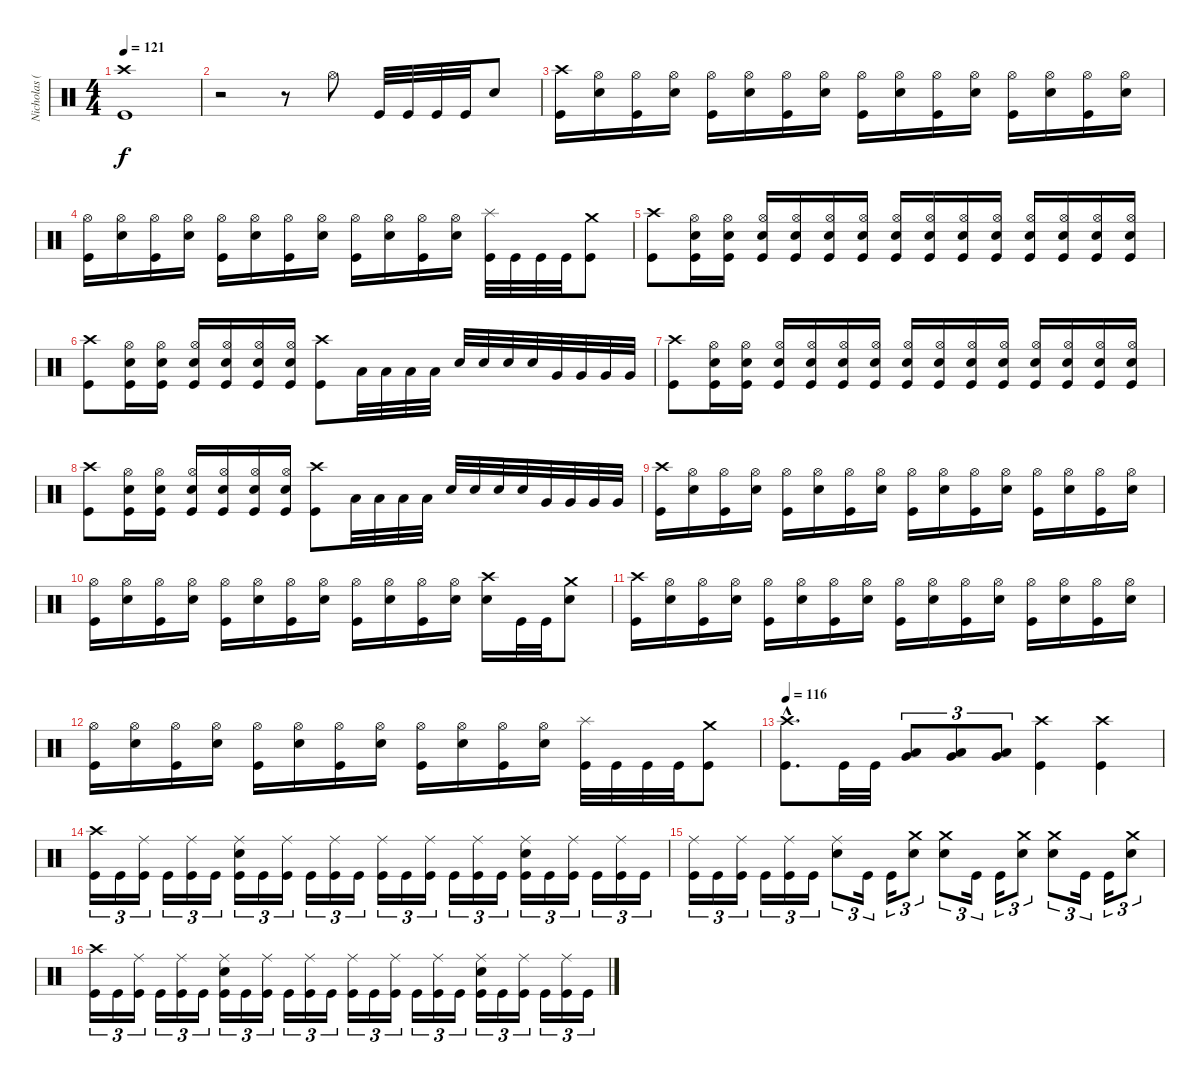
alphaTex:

\track ("Nicholas (Drums)" "Nicholas (") {instrument percussion}
\staff {score}
\articulation defaults
\ts (4 4)
\tempo 121
\clef neutral
\ks c
("Crash high (hit)" "Kick (hit)").1{dy f} |
r.2 r.8 "Hi-Hat (open)".8 "Kick (hit)".32 "Kick (hit)".32 "Kick (hit)".32 "Kick (hit)".32 "Electric Snare (hit)".8 |
("Crash high (hit)" "Kick (hit)").16 ("Hi-Hat (open)" "Electric Snare (hit)").16 ("Hi-Hat (open)" "Kick (hit)").16 ("Hi-Hat (open)" "Electric Snare (hit)").16 ("Hi-Hat (open)" "Kick (hit)").16 ("Hi-Hat (open)" "Electric Snare (hit)").16 ("Hi-Hat (open)" "Kick (hit)").16 ("Hi-Hat (open)" "Electric Snare (hit)").16 ("Hi-Hat (open)" "Kick (hit)").16 ("Hi-Hat (open)" "Electric Snare (hit)").16 ("Hi-Hat (open)" "Kick (hit)").16 ("Hi-Hat (open)" "Electric Snare (hit)").16 ("Hi-Hat (open)" "Kick (hit)").16 ("Hi-Hat (open)" "Electric Snare (hit)").16 ("Hi-Hat (open)" "Kick (hit)").16 ("Hi-Hat (open)" "Electric Snare (hit)").16 |
("Hi-Hat (open)" "Kick (hit)").16 ("Hi-Hat (open)" "Electric Snare (hit)").16 ("Hi-Hat (open)" "Kick (hit)").16 ("Hi-Hat (open)" "Electric Snare (hit)").16 ("Hi-Hat (open)" "Kick (hit)").16 ("Hi-Hat (open)" "Electric Snare (hit)").16 ("Hi-Hat (open)" "Kick (hit)").16 ("Hi-Hat (open)" "Electric Snare (hit)").16 ("Hi-Hat (open)" "Kick (hit)").16 ("Hi-Hat (open)" "Electric Snare (hit)").16 ("Hi-Hat (open)" "Kick (hit)").16 ("Hi-Hat (open)" "Electric Snare (hit)").16 ("Splash (hit)" "Kick (hit)").32 "Kick (hit)".32 "Kick (hit)".32 "Kick (hit)".32 ("Crash medium (hit)" "Kick (hit)").8 |
("Crash high (hit)" "Kick (hit)").8 ("Hi-Hat (open)" "Electric Snare (hit)" "Kick (hit)").16 ("Hi-Hat (open)" "Electric Snare (hit)" "Kick (hit)").16 ("Hi-Hat (open)" "Electric Snare (hit)" "Kick (hit)").16 ("Hi-Hat (open)" "Electric Snare (hit)" "Kick (hit)").16 ("Hi-Hat (open)" "Electric Snare (hit)" "Kick (hit)").16 ("Hi-Hat (open)" "Electric Snare (hit)" "Kick (hit)").16 ("Hi-Hat (open)" "Electric Snare (hit)" "Kick (hit)").16 ("Hi-Hat (open)" "Electric Snare (hit)" "Kick (hit)").16 ("Hi-Hat (open)" "Electric Snare (hit)" "Kick (hit)").16 ("Hi-Hat (open)" "Electric Snare (hit)" "Kick (hit)").16 ("Hi-Hat (open)" "Electric Snare (hit)" "Kick (hit)").16 ("Hi-Hat (open)" "Electric Snare (hit)" "Kick (hit)").16 ("Hi-Hat (open)" "Electric Snare (hit)" "Kick (hit)").16 ("Hi-Hat (open)" "Electric Snare (hit)" "Kick (hit)").16 |
("Crash high (hit)" "Kick (hit)").8 ("Hi-Hat (open)" "Electric Snare (hit)" "Kick (hit)").16 ("Hi-Hat (open)" "Electric Snare (hit)" "Kick (hit)").16 ("Hi-Hat (open)" "Electric Snare (hit)" "Kick (hit)").16 ("Hi-Hat (open)" "Electric Snare (hit)" "Kick (hit)").16 ("Hi-Hat (open)" "Electric Snare (hit)" "Kick (hit)").16 ("Hi-Hat (open)" "Electric Snare (hit)" "Kick (hit)").16 ("Crash high (hit)" "Kick (hit)").8 "Low Tom (hit)".32 "Low Tom (hit)".32 "Low Tom (hit)".32 "Low Tom (hit)".32 "Electric Snare (hit)".32 "Electric Snare (hit)".32 "Electric Snare (hit)".32 "Electric Snare (hit)".32 "Very Low Tom (hit)".32 "Very Low Tom (hit)".32 "Very Low Tom (hit)".32 "Very Low Tom (hit)".32 |
("Crash high (hit)" "Kick (hit)").8 ("Hi-Hat (open)" "Electric Snare (hit)" "Kick (hit)").16 ("Hi-Hat (open)" "Electric Snare (hit)" "Kick (hit)").16 ("Hi-Hat (open)" "Electric Snare (hit)" "Kick (hit)").16 ("Hi-Hat (open)" "Electric Snare (hit)" "Kick (hit)").16 ("Hi-Hat (open)" "Electric Snare (hit)" "Kick (hit)").16 ("Hi-Hat (open)" "Electric Snare (hit)" "Kick (hit)").16 ("Hi-Hat (open)" "Electric Snare (hit)" "Kick (hit)").16 ("Hi-Hat (open)" "Electric Snare (hit)" "Kick (hit)").16 ("Hi-Hat (open)" "Electric Snare (hit)" "Kick (hit)").16 ("Hi-Hat (open)" "Electric Snare (hit)" "Kick (hit)").16 ("Hi-Hat (open)" "Electric Snare (hit)" "Kick (hit)").16 ("Hi-Hat (open)" "Electric Snare (hit)" "Kick (hit)").16 ("Hi-Hat (open)" "Electric Snare (hit)" "Kick (hit)").16 ("Hi-Hat (open)" "Electric Snare (hit)" "Kick (hit)").16 |
("Crash high (hit)" "Kick (hit)").8 ("Hi-Hat (open)" "Electric Snare (hit)" "Kick (hit)").16 ("Hi-Hat (open)" "Electric Snare (hit)" "Kick (hit)").16 ("Hi-Hat (open)" "Electric Snare (hit)" "Kick (hit)").16 ("Hi-Hat (open)" "Electric Snare (hit)" "Kick (hit)").16 ("Hi-Hat (open)" "Electric Snare (hit)" "Kick (hit)").16 ("Hi-Hat (open)" "Electric Snare (hit)" "Kick (hit)").16 ("Crash high (hit)" "Kick (hit)").8 "Low Tom (hit)".32 "Low Tom (hit)".32 "Low Tom (hit)".32 "Low Tom (hit)".32 "Electric Snare (hit)".32 "Electric Snare (hit)".32 "Electric Snare (hit)".32 "Electric Snare (hit)".32 "Very Low Tom (hit)".32 "Very Low Tom (hit)".32 "Very Low Tom (hit)".32 "Very Low Tom (hit)".32 |
("Crash high (hit)" "Kick (hit)").16 ("Hi-Hat (open)" "Electric Snare (hit)").16 ("Hi-Hat (open)" "Kick (hit)").16 ("Hi-Hat (open)" "Electric Snare (hit)").16 ("Hi-Hat (open)" "Kick (hit)").16 ("Hi-Hat (open)" "Electric Snare (hit)").16 ("Hi-Hat (open)" "Kick (hit)").16 ("Hi-Hat (open)" "Electric Snare (hit)").16 ("Hi-Hat (open)" "Kick (hit)").16 ("Hi-Hat (open)" "Electric Snare (hit)").16 ("Hi-Hat (open)" "Kick (hit)").16 ("Hi-Hat (open)" "Electric Snare (hit)").16 ("Hi-Hat (open)" "Kick (hit)").16 ("Hi-Hat (open)" "Electric Snare (hit)").16 ("Hi-Hat (open)" "Kick (hit)").16 ("Hi-Hat (open)" "Electric Snare (hit)").16 |
("Hi-Hat (open)" "Kick (hit)").16 ("Hi-Hat (open)" "Electric Snare (hit)").16 ("Hi-Hat (open)" "Kick (hit)").16 ("Hi-Hat (open)" "Electric Snare (hit)").16 ("Hi-Hat (open)" "Kick (hit)").16 ("Hi-Hat (open)" "Electric Snare (hit)").16 ("Hi-Hat (open)" "Kick (hit)").16 ("Hi-Hat (open)" "Electric Snare (hit)").16 ("Hi-Hat (open)" "Kick (hit)").16 ("Hi-Hat (open)" "Electric Snare (hit)").16 ("Hi-Hat (open)" "Kick (hit)").16 ("Hi-Hat (open)" "Electric Snare (hit)").16 ("Crash high (hit)" "Electric Snare (hit)").16 "Kick (hit)".32 "Kick (hit)".32 ("Crash medium (hit)" "Electric Snare (hit)").8 |
("Crash high (hit)" "Kick (hit)").16 ("Hi-Hat (open)" "Electric Snare (hit)").16 ("Hi-Hat (open)" "Kick (hit)").16 ("Hi-Hat (open)" "Electric Snare (hit)").16 ("Hi-Hat (open)" "Kick (hit)").16 ("Hi-Hat (open)" "Electric Snare (hit)").16 ("Hi-Hat (open)" "Kick (hit)").16 ("Hi-Hat (open)" "Electric Snare (hit)").16 ("Hi-Hat (open)" "Kick (hit)").16 ("Hi-Hat (open)" "Electric Snare (hit)").16 ("Hi-Hat (open)" "Kick (hit)").16 ("Hi-Hat (open)" "Electric Snare (hit)").16 ("Hi-Hat (open)" "Kick (hit)").16 ("Hi-Hat (open)" "Electric Snare (hit)").16 ("Hi-Hat (open)" "Kick (hit)").16 ("Hi-Hat (open)" "Electric Snare (hit)").16 |
("Hi-Hat (open)" "Kick (hit)").16 ("Hi-Hat (open)" "Electric Snare (hit)").16 ("Hi-Hat (open)" "Kick (hit)").16 ("Hi-Hat (open)" "Electric Snare (hit)").16 ("Hi-Hat (open)" "Kick (hit)").16 ("Hi-Hat (open)" "Electric Snare (hit)").16 ("Hi-Hat (open)" "Kick (hit)").16 ("Hi-Hat (open)" "Electric Snare (hit)").16 ("Hi-Hat (open)" "Kick (hit)").16 ("Hi-Hat (open)" "Electric Snare (hit)").16 ("Hi-Hat (open)" "Kick (hit)").16 ("Hi-Hat (open)" "Electric Snare (hit)").16 ("Splash (hit)" "Kick (hit)").32 "Kick (hit)".32 "Kick (hit)".32 "Kick (hit)".32 ("Crash medium (hit)" "Kick (hit)").8 |
\tempo 116
("Crash high (hit)"{hac} "Kick (hit)"{hac}).8{d} "Kick (hit)".32 "Kick (hit)".32 ("Low Tom (hit)" "Very Low Tom (hit)").8{tu (3 2) bd 60} ("Low Tom (hit)" "Very Low Tom (hit)").8{tu (3 2) bd 60} ("Low Tom (hit)" "Very Low Tom (hit)").8{tu (3 2) bd 60} ("Crash high (hit)" "Kick (hit)").4 ("Crash high (hit)" "Kick (hit)").4 |
("Crash high (hit)" "Kick (hit)").16{tu (3 2)} "Kick (hit)".16{tu (3 2)} ("Ride (middle)" "Kick (hit)").16{tu (3 2)} "Kick (hit)".16{tu (3 2)} ("Ride (middle)" "Kick (hit)").16{tu (3 2)} "Kick (hit)".16{tu (3 2)} ("Ride (middle)" "Electric Snare (hit)" "Kick (hit)").16{tu (3 2)} "Kick (hit)".16{tu (3 2)} ("Ride (middle)" "Kick (hit)").16{tu (3 2)} "Kick (hit)".16{tu (3 2)} ("Ride (middle)" "Kick (hit)").16{tu (3 2)} "Kick (hit)".16{tu (3 2)} ("Ride (middle)" "Kick (hit)").16{tu (3 2)} "Kick (hit)".16{tu (3 2)} ("Ride (middle)" "Kick (hit)").16{tu (3 2)} "Kick (hit)".16{tu (3 2)} ("Ride (middle)" "Kick (hit)").16{tu (3 2)} "Kick (hit)".16{tu (3 2)} ("Ride (middle)" "Electric Snare (hit)" "Kick (hit)").16{tu (3 2)} "Kick (hit)".16{tu (3 2)} ("Ride (middle)" "Kick (hit)").16{tu (3 2)} "Kick (hit)".16{tu (3 2)} ("Ride (middle)" "Kick (hit)").16{tu (3 2)} "Kick (hit)".16{tu (3 2)} |
("Ride (middle)" "Kick (hit)").16{tu (3 2)} "Kick (hit)".16{tu (3 2)} ("Ride (middle)" "Kick (hit)").16{tu (3 2)} "Kick (hit)".16{tu (3 2)} ("Ride (middle)" "Kick (hit)").16{tu (3 2)} "Kick (hit)".16{tu (3 2)} ("Ride (middle)" "Electric Snare (hit)").8{tu (3 2)} "Kick (hit)".16{tu (3 2)} "Kick (hit)".16{tu (3 2)} ("Crash medium (hit)" "Electric Snare (hit)").8{tu (3 2)} ("Crash medium (hit)" "Electric Snare (hit)").8{tu (3 2)} "Kick (hit)".16{tu (3 2)} "Kick (hit)".16{tu (3 2)} ("Crash medium (hit)" "Electric Snare (hit)").8{tu (3 2)} ("Crash medium (hit)" "Electric Snare (hit)").8{tu (3 2)} "Kick (hit)".16{tu (3 2)} "Kick (hit)".16{tu (3 2)} ("Crash medium (hit)" "Electric Snare (hit)").8{tu (3 2)} |
("Crash high (hit)" "Kick (hit)").16{tu (3 2)} "Kick (hit)".16{tu (3 2)} ("Ride (middle)" "Kick (hit)").16{tu (3 2)} "Kick (hit)".16{tu (3 2)} ("Ride (middle)" "Kick (hit)").16{tu (3 2)} "Kick (hit)".16{tu (3 2)} ("Ride (middle)" "Electric Snare (hit)" "Kick (hit)").16{tu (3 2)} "Kick (hit)".16{tu (3 2)} ("Ride (middle)" "Kick (hit)").16{tu (3 2)} "Kick (hit)".16{tu (3 2)} ("Ride (middle)" "Kick (hit)").16{tu (3 2)} "Kick (hit)".16{tu (3 2)} ("Ride (middle)" "Kick (hit)").16{tu (3 2)} "Kick (hit)".16{tu (3 2)} ("Ride (middle)" "Kick (hit)").16{tu (3 2)} "Kick (hit)".16{tu (3 2)} ("Ride (middle)" "Kick (hit)").16{tu (3 2)} "Kick (hit)".16{tu (3 2)} ("Ride (middle)" "Electric Snare (hit)" "Kick (hit)").16{tu (3 2)} "Kick (hit)".16{tu (3 2)} ("Ride (middle)" "Kick (hit)").16{tu (3 2)} "Kick (hit)".16{tu (3 2)} ("Ride (middle)" "Kick (hit)").16{tu (3 2)} "Kick (hit)".16{tu (3 2)}
